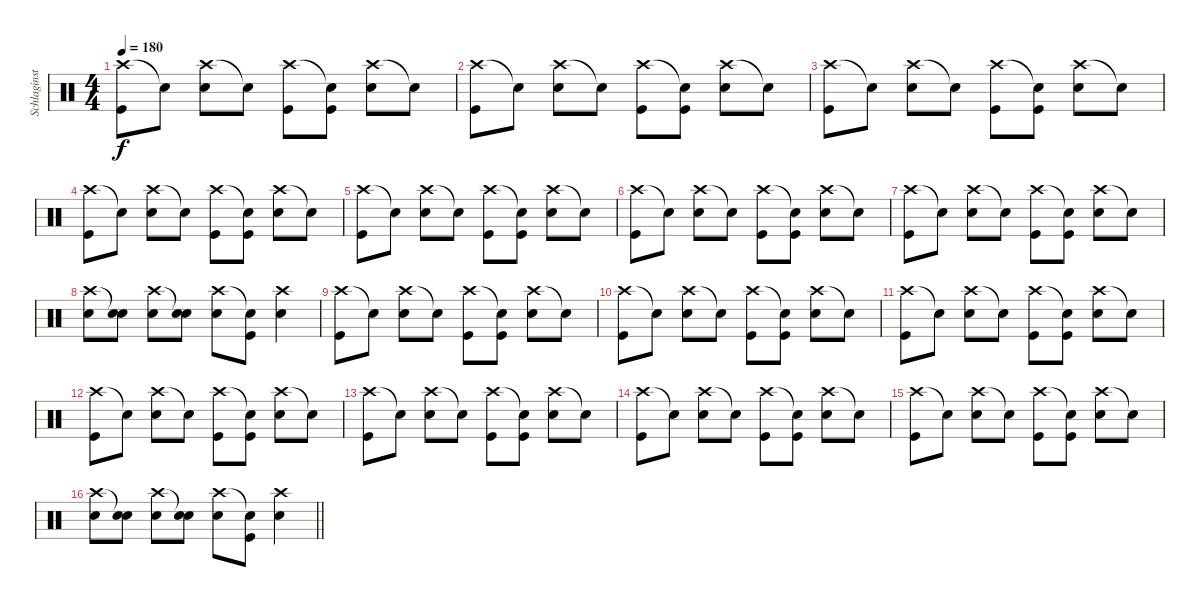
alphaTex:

\track ("Schlaginstrumente - Auswahl" "Schlaginst") {instrument percussion}
\staff {score}
\articulation defaults
\ts (4 4)
\tempo 180
\clef neutral
\ks c
("Crash high (hit)" "Kick (hit)").8{dy f} "Snare (hit)"{t}.8 ("Crash high (hit)" "Electric Snare (hit)").8 "Snare (hit)"{t}.8 ("Crash high (hit)" "Kick (hit)").8 ("Snare (hit)"{t} "Kick (hit)").8 ("Crash high (hit)" "Electric Snare (hit)").8 "Snare (hit)"{t}.8 |
("Crash high (hit)" "Kick (hit)").8 "Snare (hit)"{t}.8 ("Crash high (hit)" "Electric Snare (hit)").8 "Snare (hit)"{t}.8 ("Crash high (hit)" "Kick (hit)").8 ("Snare (hit)"{t} "Kick (hit)").8 ("Crash high (hit)" "Electric Snare (hit)").8 "Snare (hit)"{t}.8 |
("Crash high (hit)" "Kick (hit)").8 "Snare (hit)"{t}.8 ("Crash high (hit)" "Electric Snare (hit)").8 "Snare (hit)"{t}.8 ("Crash high (hit)" "Kick (hit)").8 ("Snare (hit)"{t} "Kick (hit)").8 ("Crash high (hit)" "Electric Snare (hit)").8 "Snare (hit)"{t}.8 |
("Crash high (hit)" "Kick (hit)").8 "Snare (hit)"{t}.8 ("Crash high (hit)" "Electric Snare (hit)").8 "Snare (hit)"{t}.8 ("Crash high (hit)" "Kick (hit)").8 ("Snare (hit)"{t} "Kick (hit)").8 ("Crash high (hit)" "Electric Snare (hit)").8 "Snare (hit)"{t}.8 |
("Crash high (hit)" "Kick (hit)").8 "Snare (hit)"{t}.8 ("Crash high (hit)" "Electric Snare (hit)").8 "Snare (hit)"{t}.8 ("Crash high (hit)" "Kick (hit)").8 ("Snare (hit)"{t} "Kick (hit)").8 ("Crash high (hit)" "Electric Snare (hit)").8 "Snare (hit)"{t}.8 |
("Crash high (hit)" "Kick (hit)").8 "Snare (hit)"{t}.8 ("Crash high (hit)" "Electric Snare (hit)").8 "Snare (hit)"{t}.8 ("Crash high (hit)" "Kick (hit)").8 ("Snare (hit)"{t} "Kick (hit)").8 ("Crash high (hit)" "Electric Snare (hit)").8 "Snare (hit)"{t}.8 |
("Crash high (hit)" "Kick (hit)").8 "Snare (hit)"{t}.8 ("Crash high (hit)" "Electric Snare (hit)").8 "Snare (hit)"{t}.8 ("Crash high (hit)" "Kick (hit)").8 ("Snare (hit)"{t} "Kick (hit)").8 ("Crash high (hit)" "Electric Snare (hit)").8 "Snare (hit)"{t}.8 |
("Crash high (hit)" "Electric Snare (hit)").8 ("Snare (hit)"{t} "Electric Snare (hit)").8 ("Crash high (hit)" "Electric Snare (hit)").8 ("Snare (hit)"{t} "Electric Snare (hit)").8 ("Crash high (hit)" "Electric Snare (hit)").8 ("Snare (hit)"{t} "Kick (hit)").8 ("Crash high (hit)" "Electric Snare (hit)").4 |
("Crash high (hit)" "Kick (hit)").8 "Snare (hit)"{t}.8 ("Crash high (hit)" "Electric Snare (hit)").8 "Snare (hit)"{t}.8 ("Crash high (hit)" "Kick (hit)").8 ("Snare (hit)"{t} "Kick (hit)").8 ("Crash high (hit)" "Electric Snare (hit)").8 "Snare (hit)"{t}.8 |
("Crash high (hit)" "Kick (hit)").8 "Snare (hit)"{t}.8 ("Crash high (hit)" "Electric Snare (hit)").8 "Snare (hit)"{t}.8 ("Crash high (hit)" "Kick (hit)").8 ("Snare (hit)"{t} "Kick (hit)").8 ("Crash high (hit)" "Electric Snare (hit)").8 "Snare (hit)"{t}.8 |
("Crash high (hit)" "Kick (hit)").8 "Snare (hit)"{t}.8 ("Crash high (hit)" "Electric Snare (hit)").8 "Snare (hit)"{t}.8 ("Crash high (hit)" "Kick (hit)").8 ("Snare (hit)"{t} "Kick (hit)").8 ("Crash high (hit)" "Electric Snare (hit)").8 "Snare (hit)"{t}.8 |
("Crash high (hit)" "Kick (hit)").8 "Snare (hit)"{t}.8 ("Crash high (hit)" "Electric Snare (hit)").8 "Snare (hit)"{t}.8 ("Crash high (hit)" "Kick (hit)").8 ("Snare (hit)"{t} "Kick (hit)").8 ("Crash high (hit)" "Electric Snare (hit)").8 "Snare (hit)"{t}.8 |
("Crash high (hit)" "Kick (hit)").8 "Snare (hit)"{t}.8 ("Crash high (hit)" "Electric Snare (hit)").8 "Snare (hit)"{t}.8 ("Crash high (hit)" "Kick (hit)").8 ("Snare (hit)"{t} "Kick (hit)").8 ("Crash high (hit)" "Electric Snare (hit)").8 "Snare (hit)"{t}.8 |
("Crash high (hit)" "Kick (hit)").8 "Snare (hit)"{t}.8 ("Crash high (hit)" "Electric Snare (hit)").8 "Snare (hit)"{t}.8 ("Crash high (hit)" "Kick (hit)").8 ("Snare (hit)"{t} "Kick (hit)").8 ("Crash high (hit)" "Electric Snare (hit)").8 "Snare (hit)"{t}.8 |
("Crash high (hit)" "Kick (hit)").8 "Snare (hit)"{t}.8 ("Crash high (hit)" "Electric Snare (hit)").8 "Snare (hit)"{t}.8 ("Crash high (hit)" "Kick (hit)").8 ("Snare (hit)"{t} "Kick (hit)").8 ("Crash high (hit)" "Electric Snare (hit)").8 "Snare (hit)"{t}.8 |
\barLineRight lightlight
("Crash high (hit)" "Electric Snare (hit)").8 ("Snare (hit)"{t} "Electric Snare (hit)").8 ("Crash high (hit)" "Electric Snare (hit)").8 ("Snare (hit)"{t} "Electric Snare (hit)").8 ("Crash high (hit)" "Electric Snare (hit)").8 ("Snare (hit)"{t} "Kick (hit)").8 ("Crash high (hit)" "Electric Snare (hit)").4
